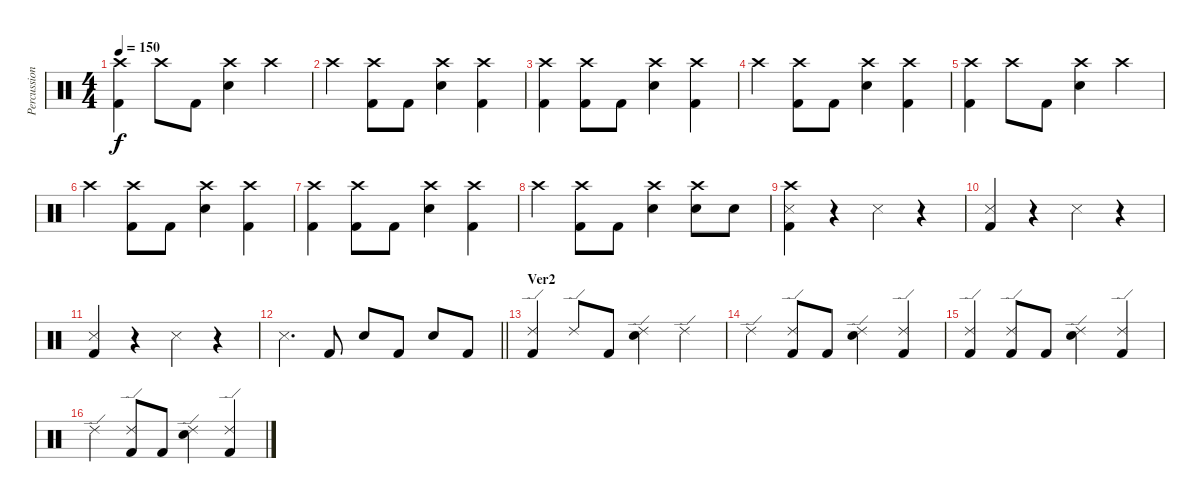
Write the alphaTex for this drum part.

\track ("Percussion" "Percussion") {instrument percussion}
\staff {score}
\articulation defaults
\ts (4 4)
\tempo 150
\clef neutral
\ks c
("Crash high (hit)" "Kick (hit) 2").4{dy f} "Crash high (hit)".8 "Kick (hit) 2".8 ("Crash high (hit)" "Snare (hit) 2").4 "Crash high (hit)".4 |
"Crash high (hit)".4 ("Crash high (hit)" "Kick (hit) 2").8 "Kick (hit) 2".8 ("Crash high (hit)" "Snare (hit) 2").4 ("Crash high (hit)" "Kick (hit) 2").4 |
("Crash high (hit)" "Kick (hit) 2").4 ("Crash high (hit)" "Kick (hit) 2").8 "Kick (hit) 2".8 ("Crash high (hit)" "Snare (hit) 2").4 ("Crash high (hit)" "Kick (hit) 2").4 |
"Crash high (hit)".4 ("Crash high (hit)" "Kick (hit) 2").8 "Kick (hit) 2".8 ("Crash high (hit)" "Snare (hit) 2").4 ("Crash high (hit)" "Kick (hit) 2").4 |
("Crash high (hit)" "Kick (hit) 2").4 "Crash high (hit)".8 "Kick (hit) 2".8 ("Crash high (hit)" "Snare (hit) 2").4 "Crash high (hit)".4 |
"Crash high (hit)".4 ("Crash high (hit)" "Kick (hit) 2").8 "Kick (hit) 2".8 ("Crash high (hit)" "Snare (hit) 2").4 ("Crash high (hit)" "Kick (hit) 2").4 |
("Crash high (hit)" "Kick (hit) 2").4 ("Crash high (hit)" "Kick (hit) 2").8 "Kick (hit) 2".8 ("Crash high (hit)" "Snare (hit) 2").4 ("Crash high (hit)" "Kick (hit) 2").4 |
"Crash high (hit)".4 ("Crash high (hit)" "Kick (hit) 2").8 "Kick (hit) 2".8 ("Crash high (hit)" "Snare (hit) 2").4 ("Crash high (hit)" "Snare (hit) 2").8 "Snare (hit) 2".8 |
("Crash high (hit)" "Snare (side stick) 3" "Kick (hit) 2").4 r.4 "Snare (side stick) 3".4 r.4 |
("Snare (side stick) 3" "Kick (hit) 2").4 r.4 "Snare (side stick) 3".4 r.4 |
("Snare (side stick) 3" "Kick (hit) 2").4 r.4 "Snare (side stick) 3".4 r.4 |
\barLineRight lightlight "Snare (side stick) 3".4{d} "Kick (hit) 2".8 "Snare (hit) 2".8 "Kick (hit) 2".8 "Snare (hit) 2".8 "Kick (hit) 2".8
|
\section ("" "Ver2")
("Ride (edge) 2" "Kick (hit) 2").4 "Ride (edge) 2".8 "Kick (hit) 2".8 ("Ride (edge) 2" "Snare (hit) 2").4 "Ride (edge) 2".4 |
"Ride (edge) 2".4 ("Ride (edge) 2" "Kick (hit) 2").8 "Kick (hit) 2".8 ("Ride (edge) 2" "Snare (hit) 2").4 ("Ride (edge) 2" "Kick (hit) 2").4 |
("Ride (edge) 2" "Kick (hit) 2").4 ("Ride (edge) 2" "Kick (hit) 2").8 "Kick (hit) 2".8 ("Ride (edge) 2" "Snare (hit) 2").4 ("Ride (edge) 2" "Kick (hit) 2").4 |
"Ride (edge) 2".4 ("Ride (edge) 2" "Kick (hit) 2").8 "Kick (hit) 2".8 ("Ride (edge) 2" "Snare (hit) 2").4 ("Ride (edge) 2" "Kick (hit) 2").4
